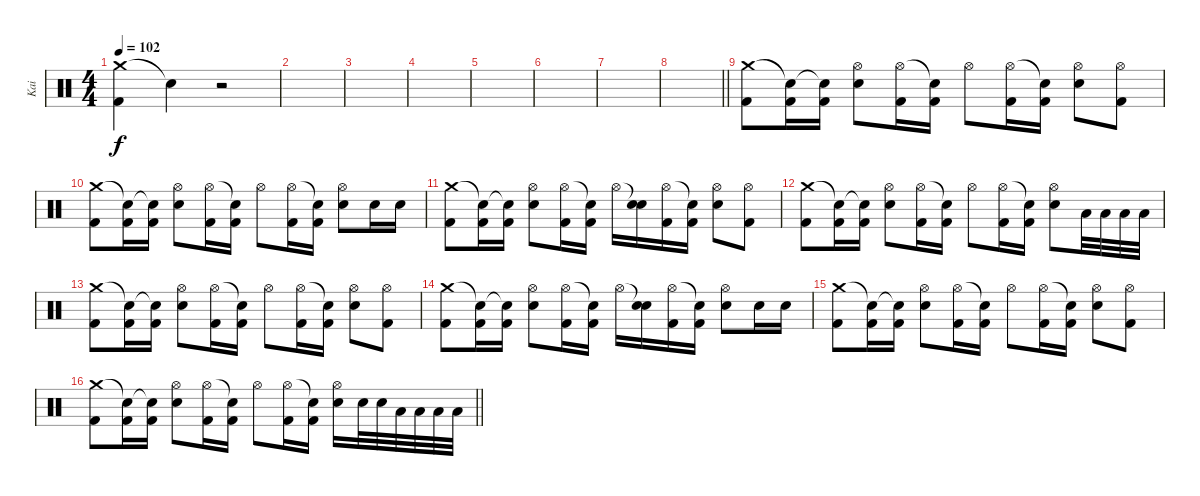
\track ("Kai" "Kai") {instrument percussion}
\staff {score}
\articulation defaults
\ts (4 4)
\tempo 102
\clef neutral
\ks c
("Crash medium (hit)" "Kick (hit) 2").4{dy f} "Snare (hit)"{t}.4 r.2 |
|
|
|
|
|
|
\barLineRight lightlight
|
("Crash medium (hit)" "Kick (hit) 2").8 ("Snare (hit)"{t} "Kick (hit) 2").16 ("Snare (hit)"{t} "Kick (hit) 2").16 ("Hi-Hat (open)" "Snare (hit) 2").8 ("Hi-Hat (open)" "Kick (hit) 2").16 ("Snare (hit)"{t} "Kick (hit) 2").16 "Hi-Hat (open)".8 ("Hi-Hat (open)" "Kick (hit) 2").16 ("Snare (hit)"{t} "Kick (hit) 2").16 ("Hi-Hat (open)" "Snare (hit) 2").8 ("Hi-Hat (open)" "Kick (hit) 2").8 |
("Crash medium (hit)" "Kick (hit) 2").8 ("Snare (hit)"{t} "Kick (hit) 2").16 ("Snare (hit)"{t} "Kick (hit) 2").16 ("Hi-Hat (open)" "Snare (hit) 2").8 ("Hi-Hat (open)" "Kick (hit) 2").16 ("Snare (hit)"{t} "Kick (hit) 2").16 "Hi-Hat (open)".8 ("Hi-Hat (open)" "Kick (hit) 2").16 ("Snare (hit)"{t} "Kick (hit) 2").16 ("Hi-Hat (open)" "Snare (hit) 2").8 "Snare (hit) 2".16 "Snare (hit) 2".16 |
("Crash medium (hit)" "Kick (hit) 2").8 ("Snare (hit)"{t} "Kick (hit) 2").16 ("Snare (hit)"{t} "Kick (hit) 2").16 ("Hi-Hat (open)" "Snare (hit) 2").8 ("Hi-Hat (open)" "Kick (hit) 2").16 ("Snare (hit)"{t} "Kick (hit) 2").16 "Hi-Hat (open)".16 ("Snare (hit)"{t} "Snare (hit) 2").16 ("Hi-Hat (open)" "Kick (hit) 2").16 ("Snare (hit)"{t} "Kick (hit) 2").16 ("Hi-Hat (open)" "Snare (hit) 2").8 ("Hi-Hat (open)" "Kick (hit) 2").8 |
("Crash medium (hit)" "Kick (hit) 2").8 ("Snare (hit)"{t} "Kick (hit) 2").16 ("Snare (hit)"{t} "Kick (hit) 2").16 ("Hi-Hat (open)" "Snare (hit) 2").8 ("Hi-Hat (open)" "Kick (hit) 2").16 ("Snare (hit)"{t} "Kick (hit) 2").16 "Hi-Hat (open)".8 ("Hi-Hat (open)" "Kick (hit) 2").16 ("Snare (hit)"{t} "Kick (hit) 2").16 ("Hi-Hat (open)" "Snare (hit) 2").8 "Low Tom (hit)".32 "Low Tom (hit)".32 "Low Tom (hit)".32 "Low Tom (hit)".32 |
("Crash medium (hit)" "Kick (hit) 2").8 ("Snare (hit)"{t} "Kick (hit) 2").16 ("Snare (hit)"{t} "Kick (hit) 2").16 ("Hi-Hat (open)" "Snare (hit) 2").8 ("Hi-Hat (open)" "Kick (hit) 2").16 ("Snare (hit)"{t} "Kick (hit) 2").16 "Hi-Hat (open)".8 ("Hi-Hat (open)" "Kick (hit) 2").16 ("Snare (hit)"{t} "Kick (hit) 2").16 ("Hi-Hat (open)" "Snare (hit) 2").8 ("Hi-Hat (open)" "Kick (hit) 2").8 |
("Crash medium (hit)" "Kick (hit) 2").8 ("Snare (hit)"{t} "Kick (hit) 2").16 ("Snare (hit)"{t} "Kick (hit) 2").16 ("Hi-Hat (open)" "Snare (hit) 2").8 ("Hi-Hat (open)" "Kick (hit) 2").16 ("Snare (hit)"{t} "Kick (hit) 2").16 "Hi-Hat (open)".16 ("Snare (hit)"{t} "Snare (hit) 2").16 ("Hi-Hat (open)" "Kick (hit) 2").16 ("Snare (hit)"{t} "Kick (hit) 2").16 ("Hi-Hat (open)" "Snare (hit) 2").8 "Snare (hit) 2".16 "Snare (hit) 2".16 |
("Crash medium (hit)" "Kick (hit) 2").8 ("Snare (hit)"{t} "Kick (hit) 2").16 ("Snare (hit)"{t} "Kick (hit) 2").16 ("Hi-Hat (open)" "Snare (hit) 2").8 ("Hi-Hat (open)" "Kick (hit) 2").16 ("Snare (hit)"{t} "Kick (hit) 2").16 "Hi-Hat (open)".8 ("Hi-Hat (open)" "Kick (hit) 2").16 ("Snare (hit)"{t} "Kick (hit) 2").16 ("Hi-Hat (open)" "Snare (hit) 2").8 ("Hi-Hat (open)" "Kick (hit) 2").8 |
\barLineRight lightlight
("Crash medium (hit)" "Kick (hit) 2").8 ("Snare (hit)"{t} "Kick (hit) 2").16 ("Snare (hit)"{t} "Kick (hit) 2").16 ("Hi-Hat (open)" "Snare (hit) 2").8 ("Hi-Hat (open)" "Kick (hit) 2").16 ("Snare (hit)"{t} "Kick (hit) 2").16 "Hi-Hat (open)".8 ("Hi-Hat (open)" "Kick (hit) 2").16 ("Snare (hit)"{t} "Kick (hit) 2").16 ("Hi-Hat (open)" "Snare (hit) 2").16 "Snare (hit) 2".32 "Snare (hit) 2".32 "Low Tom (hit)".32 "Low Tom (hit)".32 "Low Tom (hit)".32 "Low Tom (hit)".32
